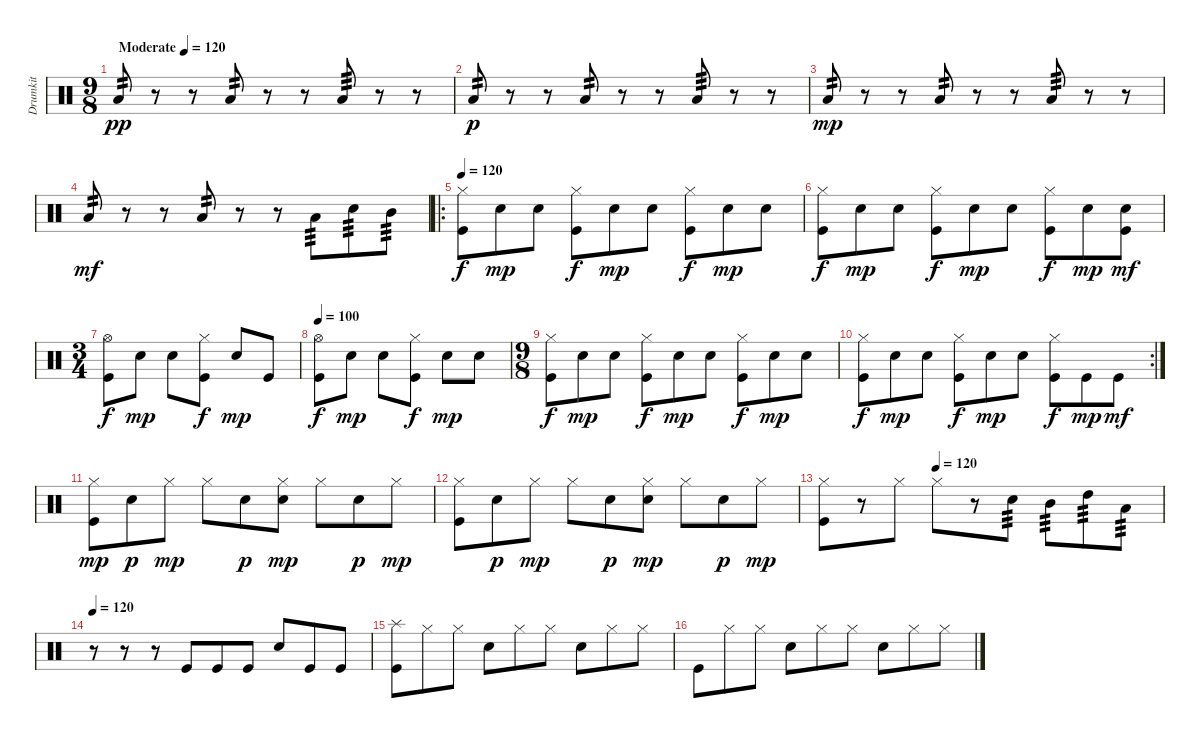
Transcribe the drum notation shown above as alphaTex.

\track ("Drumkit" "Drumkit") {instrument percussion}
\staff {score}
\articulation defaults
\ts (9 8)
\tempo (120 "Moderate")
\clef neutral
\ks c "Low Tom (hit)".8{tp 2 dy pp}
r.8 r.8 "Low Tom (hit)".8{tp 2} r.8 r.8 "Low Tom (hit)".8{tp 3} r.8 r.8 |
"Low Tom (hit)".8{tp 2 dy p} r.8 r.8 "Low Tom (hit)".8{tp 2} r.8 r.8 "Low Tom (hit)".8{tp 3} r.8 r.8 |
"Low Tom (hit)".8{tp 2 dy mp} r.8 r.8 "Low Tom (hit)".8{tp 2} r.8 r.8 "Low Tom (hit)".8{tp 3} r.8 r.8 |
"Low Tom (hit)".8{tp 2 dy mf} r.8 r.8 "Low Tom (hit)".8{tp 2} r.8 r.8 "Low Tom (hit)".8{tp 3} "Snare (hit) 2".8{tp 3} "Mid Tom (hit)".8{tp 3} |
\ro
\tempo 120
("Hi-Hat (closed)" "Kick (hit)").8{dy f} "Snare (hit) 2".8{dy mp} "Snare (hit) 2".8 ("Hi-Hat (closed)" "Kick (hit)").8{dy f} "Snare (hit) 2".8{dy mp} "Snare (hit) 2".8 ("Hi-Hat (closed)" "Kick (hit)").8{dy f} "Snare (hit) 2".8{dy mp} "Snare (hit) 2".8 |
("Hi-Hat (closed)" "Kick (hit)").8{dy f} "Snare (hit) 2".8{dy mp} "Snare (hit) 2".8 ("Hi-Hat (closed)" "Kick (hit)").8{dy f} "Snare (hit) 2".8{dy mp} "Snare (hit) 2".8 ("Hi-Hat (closed)" "Kick (hit)").8{dy f} "Snare (hit) 2".8{dy mp} ("Snare (hit) 2" "Kick (hit)").8{dy mf} |
\ts (3 4)
("Hi-Hat (open)" "Kick (hit)").8{dy f} "Snare (hit) 2".8{dy mp} "Snare (hit) 2".8 ("Hi-Hat (closed)" "Kick (hit)").8{dy f} "Snare (hit) 2".8{dy mp} "Kick (hit)".8 |
\tempo 100
("Hi-Hat (open)" "Kick (hit)").8{dy f} "Snare (hit) 2".8{dy mp} "Snare (hit) 2".8 ("Hi-Hat (closed)" "Kick (hit)").8{dy f} "Snare (hit) 2".8{dy mp} "Snare (hit) 2".8 |
\ts (9 8)
("Hi-Hat (closed)" "Kick (hit)").8{dy f} "Snare (hit) 2".8{dy mp} "Snare (hit) 2".8 ("Hi-Hat (closed)" "Kick (hit)").8{dy f} "Snare (hit) 2".8{dy mp} "Snare (hit) 2".8 ("Hi-Hat (closed)" "Kick (hit)").8{dy f} "Snare (hit) 2".8{dy mp} "Snare (hit) 2".8 |
\rc 2
("Hi-Hat (closed)" "Kick (hit)").8{dy f} "Snare (hit) 2".8{dy mp} "Snare (hit) 2".8 ("Hi-Hat (closed)" "Kick (hit)").8{dy f} "Snare (hit) 2".8{dy mp} "Snare (hit) 2".8 ("Hi-Hat (closed)" "Kick (hit)").8{dy f} "Kick (hit)".8{dy mp} "Kick (hit)".8{dy mf} |
("Hi-Hat (closed)" "Kick (hit)").8{dy mp} "Snare (hit) 2".8{dy p} "Hi-Hat (closed)".8{dy mp} "Hi-Hat (closed)".8 "Snare (hit) 2".8{dy p} ("Hi-Hat (closed)" "Snare (hit) 2").8{dy mp} "Hi-Hat (closed)".8 "Snare (hit) 2".8{dy p} "Hi-Hat (closed)".8{dy mp} |
("Hi-Hat (closed)" "Kick (hit)").8 "Snare (hit) 2".8{dy p} "Hi-Hat (closed)".8{dy mp} "Hi-Hat (closed)".8 "Snare (hit) 2".8{dy p} ("Hi-Hat (closed)" "Snare (hit) 2").8{dy mp} "Hi-Hat (closed)".8 "Snare (hit) 2".8{dy p} "Hi-Hat (closed)".8{dy mp} |
\tempo (120 0.3333333333333333)
("Hi-Hat (closed)" "Kick (hit)").8 r.8 "Hi-Hat (closed)".8 "Hi-Hat (closed)".8 r.8 "Snare (hit) 2".8{tp 3} "Mid Tom (hit)".8{tp 3} "High Tom (hit)".8{tp 3} "Low Tom (hit)".8{tp 3} |
\tempo 120
r.8 r.8 r.8 "Kick (hit)".8 "Kick (hit)".8 "Kick (hit)".8 "Snare (hit) 2".8 "Kick (hit)".8 "Kick (hit)".8 |
("Splash (hit)" "Kick (hit)").8 "Hi-Hat (closed)".8 "Hi-Hat (closed)".8 "Snare (hit) 2".8 "Hi-Hat (closed)".8 "Hi-Hat (closed)".8 "Snare (hit) 2".8 "Hi-Hat (closed)".8 "Hi-Hat (closed)".8 |
"Kick (hit)".8 "Hi-Hat (closed)".8 "Hi-Hat (closed)".8 "Snare (hit) 2".8 "Hi-Hat (closed)".8 "Hi-Hat (closed)".8 "Snare (hit) 2".8 "Hi-Hat (closed)".8 "Hi-Hat (closed)".8
